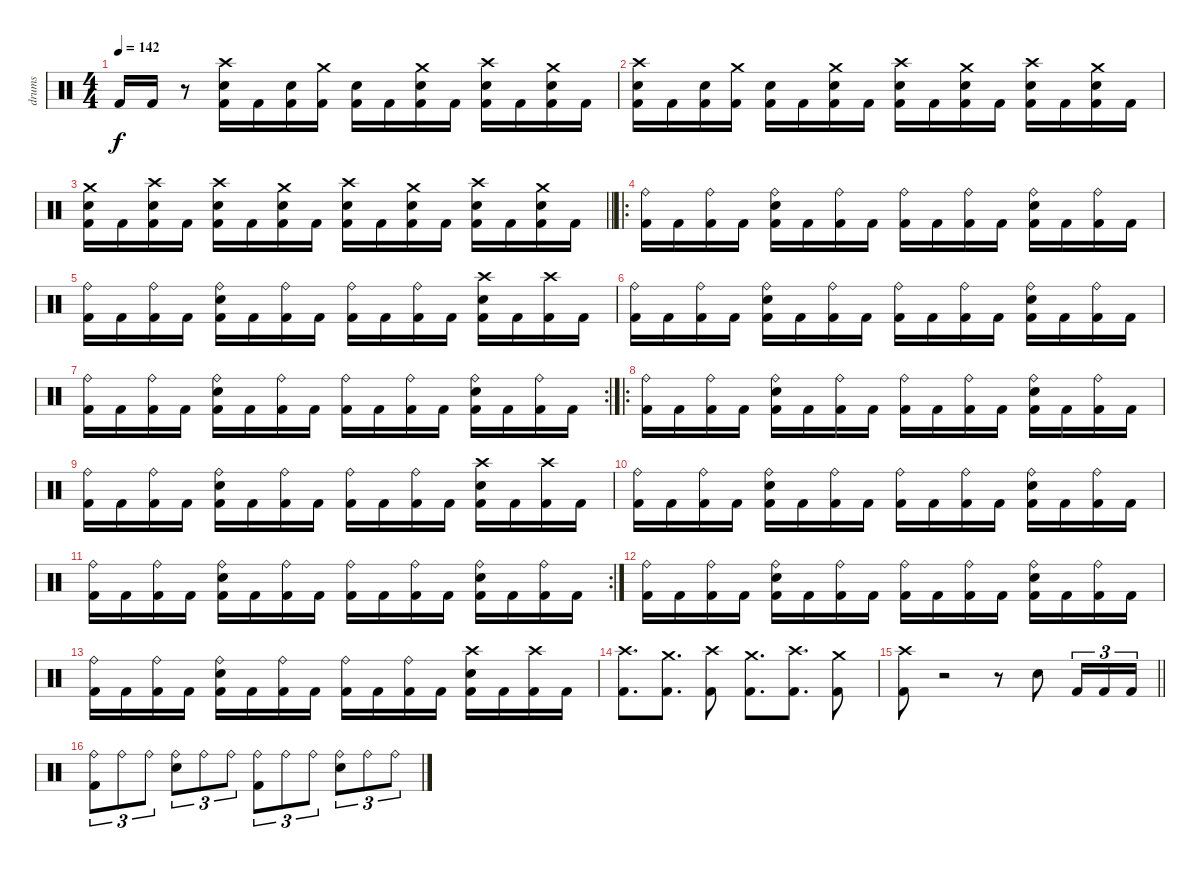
\track ("drums" "drums") {instrument percussion}
\staff {score}
\articulation defaults
\ts (4 4)
\tempo 142
\clef neutral
\ks c "Kick (hit) 2".16{dy f} "Kick (hit) 2".16
r.8 ("Crash high (hit)" "Snare (hit) 2" "Kick (hit) 2").16 "Kick (hit) 2".16 ("Snare (hit) 2" "Kick (hit) 2").16 ("Crash medium (hit)" "Kick (hit) 2").16 ("Snare (hit) 2" "Kick (hit) 2").16 "Kick (hit) 2".16 ("Crash medium (hit)" "Snare (hit) 2" "Kick (hit) 2").16 "Kick (hit) 2".16 ("Crash high (hit)" "Snare (hit) 2" "Kick (hit) 2").16 "Kick (hit) 2".16 ("Crash medium (hit)" "Snare (hit) 2" "Kick (hit) 2").16 "Kick (hit) 2".16 |
("Crash high (hit)" "Snare (hit) 2" "Kick (hit) 2").16 "Kick (hit) 2".16 ("Snare (hit) 2" "Kick (hit) 2").16 ("Crash medium (hit)" "Kick (hit) 2").16 ("Snare (hit) 2" "Kick (hit) 2").16 "Kick (hit) 2".16 ("Crash medium (hit)" "Snare (hit) 2" "Kick (hit) 2").16 "Kick (hit) 2".16 ("Crash high (hit)" "Snare (hit) 2" "Kick (hit) 2").16 "Kick (hit) 2".16 ("Crash medium (hit)" "Snare (hit) 2" "Kick (hit) 2").16 "Kick (hit) 2".16 ("Crash high (hit)" "Snare (hit) 2" "Kick (hit) 2").16 "Kick (hit) 2".16 ("Crash medium (hit)" "Snare (hit) 2" "Kick (hit) 2").16 "Kick (hit) 2".16 |
\barLineRight lightlight
("Crash medium (hit)" "Snare (hit) 2" "Kick (hit) 2").16 "Kick (hit) 2".16 ("Crash high (hit)" "Snare (hit) 2" "Kick (hit) 2").16 "Kick (hit) 2".16 ("Crash high (hit)" "Snare (hit) 2" "Kick (hit) 2").16 "Kick (hit) 2".16 ("Crash medium (hit)" "Snare (hit) 2" "Kick (hit) 2").16 "Kick (hit) 2".16 ("Crash high (hit)" "Snare (hit) 2" "Kick (hit) 2").16 "Kick (hit) 2".16 ("Crash medium (hit)" "Snare (hit) 2" "Kick (hit) 2").16 "Kick (hit) 2".16 ("Crash high (hit)" "Snare (hit) 2" "Kick (hit) 2").16 "Kick (hit) 2".16 ("Crash medium (hit)" "Snare (hit) 2" "Kick (hit) 2").16 "Kick (hit) 2".16 |
\ro
\section ("" "")
("Ride (bell)" "Kick (hit) 2").16 "Kick (hit) 2".16 ("Ride (bell)" "Kick (hit) 2").16 "Kick (hit) 2".16 ("Ride (bell)" "Snare (hit) 2" "Kick (hit) 2").16 "Kick (hit) 2".16 ("Ride (bell)" "Kick (hit) 2").16 "Kick (hit) 2".16 ("Ride (bell)" "Kick (hit) 2").16 "Kick (hit) 2".16 ("Ride (bell)" "Kick (hit) 2").16 "Kick (hit) 2".16 ("Ride (bell)" "Snare (hit) 2" "Kick (hit) 2").16 "Kick (hit) 2".16 ("Ride (bell)" "Kick (hit) 2").16 "Kick (hit) 2".16 |
("Ride (bell)" "Kick (hit) 2").16 "Kick (hit) 2".16 ("Ride (bell)" "Kick (hit) 2").16 "Kick (hit) 2".16 ("Ride (bell)" "Snare (hit) 2" "Kick (hit) 2").16 "Kick (hit) 2".16 ("Ride (bell)" "Kick (hit) 2").16 "Kick (hit) 2".16 ("Ride (bell)" "Kick (hit) 2").16 "Kick (hit) 2".16 ("Ride (bell)" "Kick (hit) 2").16 "Kick (hit) 2".16 ("Crash high (hit)" "Snare (hit) 2" "Kick (hit) 2").16 "Kick (hit) 2".16 ("Crash high (hit)" "Kick (hit) 2").16 "Kick (hit) 2".16 |
("Ride (bell)" "Kick (hit) 2").16 "Kick (hit) 2".16 ("Ride (bell)" "Kick (hit) 2").16 "Kick (hit) 2".16 ("Ride (bell)" "Snare (hit) 2" "Kick (hit) 2").16 "Kick (hit) 2".16 ("Ride (bell)" "Kick (hit) 2").16 "Kick (hit) 2".16 ("Ride (bell)" "Kick (hit) 2").16 "Kick (hit) 2".16 ("Ride (bell)" "Kick (hit) 2").16 "Kick (hit) 2".16 ("Ride (bell)" "Snare (hit) 2" "Kick (hit) 2").16 "Kick (hit) 2".16 ("Ride (bell)" "Kick (hit) 2").16 "Kick (hit) 2".16 |
\rc 2
("Ride (bell)" "Kick (hit) 2").16 "Kick (hit) 2".16 ("Ride (bell)" "Kick (hit) 2").16 "Kick (hit) 2".16 ("Ride (bell)" "Snare (hit) 2" "Kick (hit) 2").16 "Kick (hit) 2".16 ("Ride (bell)" "Kick (hit) 2").16 "Kick (hit) 2".16 ("Ride (bell)" "Kick (hit) 2").16 "Kick (hit) 2".16 ("Ride (bell)" "Kick (hit) 2").16 "Kick (hit) 2".16 ("Ride (bell)" "Snare (hit) 2" "Kick (hit) 2").16 "Kick (hit) 2".16 ("Ride (bell)" "Kick (hit) 2").16 "Kick (hit) 2".16 |
\ro
("Ride (bell)" "Kick (hit) 2").16 "Kick (hit) 2".16 ("Ride (bell)" "Kick (hit) 2").16 "Kick (hit) 2".16 ("Ride (bell)" "Snare (hit) 2" "Kick (hit) 2").16 "Kick (hit) 2".16 ("Ride (bell)" "Kick (hit) 2").16 "Kick (hit) 2".16 ("Ride (bell)" "Kick (hit) 2").16 "Kick (hit) 2".16 ("Ride (bell)" "Kick (hit) 2").16 "Kick (hit) 2".16 ("Ride (bell)" "Snare (hit) 2" "Kick (hit) 2").16 "Kick (hit) 2".16 ("Ride (bell)" "Kick (hit) 2").16 "Kick (hit) 2".16 |
("Ride (bell)" "Kick (hit) 2").16 "Kick (hit) 2".16 ("Ride (bell)" "Kick (hit) 2").16 "Kick (hit) 2".16 ("Ride (bell)" "Snare (hit) 2" "Kick (hit) 2").16 "Kick (hit) 2".16 ("Ride (bell)" "Kick (hit) 2").16 "Kick (hit) 2".16 ("Ride (bell)" "Kick (hit) 2").16 "Kick (hit) 2".16 ("Ride (bell)" "Kick (hit) 2").16 "Kick (hit) 2".16 ("Crash high (hit)" "Snare (hit) 2" "Kick (hit) 2").16 "Kick (hit) 2".16 ("Crash high (hit)" "Kick (hit) 2").16 "Kick (hit) 2".16 |
("Ride (bell)" "Kick (hit) 2").16 "Kick (hit) 2".16 ("Ride (bell)" "Kick (hit) 2").16 "Kick (hit) 2".16 ("Ride (bell)" "Snare (hit) 2" "Kick (hit) 2").16 "Kick (hit) 2".16 ("Ride (bell)" "Kick (hit) 2").16 "Kick (hit) 2".16 ("Ride (bell)" "Kick (hit) 2").16 "Kick (hit) 2".16 ("Ride (bell)" "Kick (hit) 2").16 "Kick (hit) 2".16 ("Ride (bell)" "Snare (hit) 2" "Kick (hit) 2").16 "Kick (hit) 2".16 ("Ride (bell)" "Kick (hit) 2").16 "Kick (hit) 2".16 |
\rc 2
("Ride (bell)" "Kick (hit) 2").16 "Kick (hit) 2".16 ("Ride (bell)" "Kick (hit) 2").16 "Kick (hit) 2".16 ("Ride (bell)" "Snare (hit) 2" "Kick (hit) 2").16 "Kick (hit) 2".16 ("Ride (bell)" "Kick (hit) 2").16 "Kick (hit) 2".16 ("Ride (bell)" "Kick (hit) 2").16 "Kick (hit) 2".16 ("Ride (bell)" "Kick (hit) 2").16 "Kick (hit) 2".16 ("Ride (bell)" "Snare (hit) 2" "Kick (hit) 2").16 "Kick (hit) 2".16 ("Ride (bell)" "Kick (hit) 2").16 "Kick (hit) 2".16 |
("Ride (bell)" "Kick (hit) 2").16 "Kick (hit) 2".16 ("Ride (bell)" "Kick (hit) 2").16 "Kick (hit) 2".16 ("Ride (bell)" "Snare (hit) 2" "Kick (hit) 2").16 "Kick (hit) 2".16 ("Ride (bell)" "Kick (hit) 2").16 "Kick (hit) 2".16 ("Ride (bell)" "Kick (hit) 2").16 "Kick (hit) 2".16 ("Ride (bell)" "Kick (hit) 2").16 "Kick (hit) 2".16 ("Ride (bell)" "Snare (hit) 2" "Kick (hit) 2").16 "Kick (hit) 2".16 ("Ride (bell)" "Kick (hit) 2").16 "Kick (hit) 2".16 |
("Ride (bell)" "Kick (hit) 2").16 "Kick (hit) 2".16 ("Ride (bell)" "Kick (hit) 2").16 "Kick (hit) 2".16 ("Ride (bell)" "Snare (hit) 2" "Kick (hit) 2").16 "Kick (hit) 2".16 ("Ride (bell)" "Kick (hit) 2").16 "Kick (hit) 2".16 ("Ride (bell)" "Kick (hit) 2").16 "Kick (hit) 2".16 ("Ride (bell)" "Kick (hit) 2").16 "Kick (hit) 2".16 ("Crash high (hit)" "Snare (hit) 2" "Kick (hit) 2").16 "Kick (hit) 2".16 ("Crash high (hit)" "Kick (hit) 2").16 "Kick (hit) 2".16 |
("Kick (hit) 2" "Crash high (hit)").8{d} ("Kick (hit) 2" "Crash medium (hit)").8{d} ("Kick (hit) 2" "Crash high (hit)").8 ("Kick (hit) 2" "Crash medium (hit)").8{d} ("Kick (hit) 2" "Crash high (hit)").8{d} ("Kick (hit) 2" "Crash medium (hit)").8 |
\barLineRight lightlight
("Crash high (hit)" "Kick (hit) 2").8 r.2 r.8 "Snare (hit) 2".8 "Kick (hit) 2".16{tu (3 2)} "Kick (hit) 2".16{tu (3 2)} "Kick (hit) 2".16{tu (3 2)} |
\section ("" "")
("Ride (bell)" "Kick (hit) 2").8{tu (3 2)} "Ride (bell)".8{tu (3 2)} "Ride (bell)".8{tu (3 2)} ("Ride (bell)" "Electric Snare (hit)").8{tu (3 2)} "Ride (bell)".8{tu (3 2)} "Ride (bell)".8{tu (3 2)} ("Ride (bell)" "Kick (hit) 2").8{tu (3 2)} "Ride (bell)".8{tu (3 2)} "Ride (bell)".8{tu (3 2)} ("Ride (bell)" "Electric Snare (hit)").8{tu (3 2)} "Ride (bell)".8{tu (3 2)} "Ride (bell)".8{tu (3 2)}
